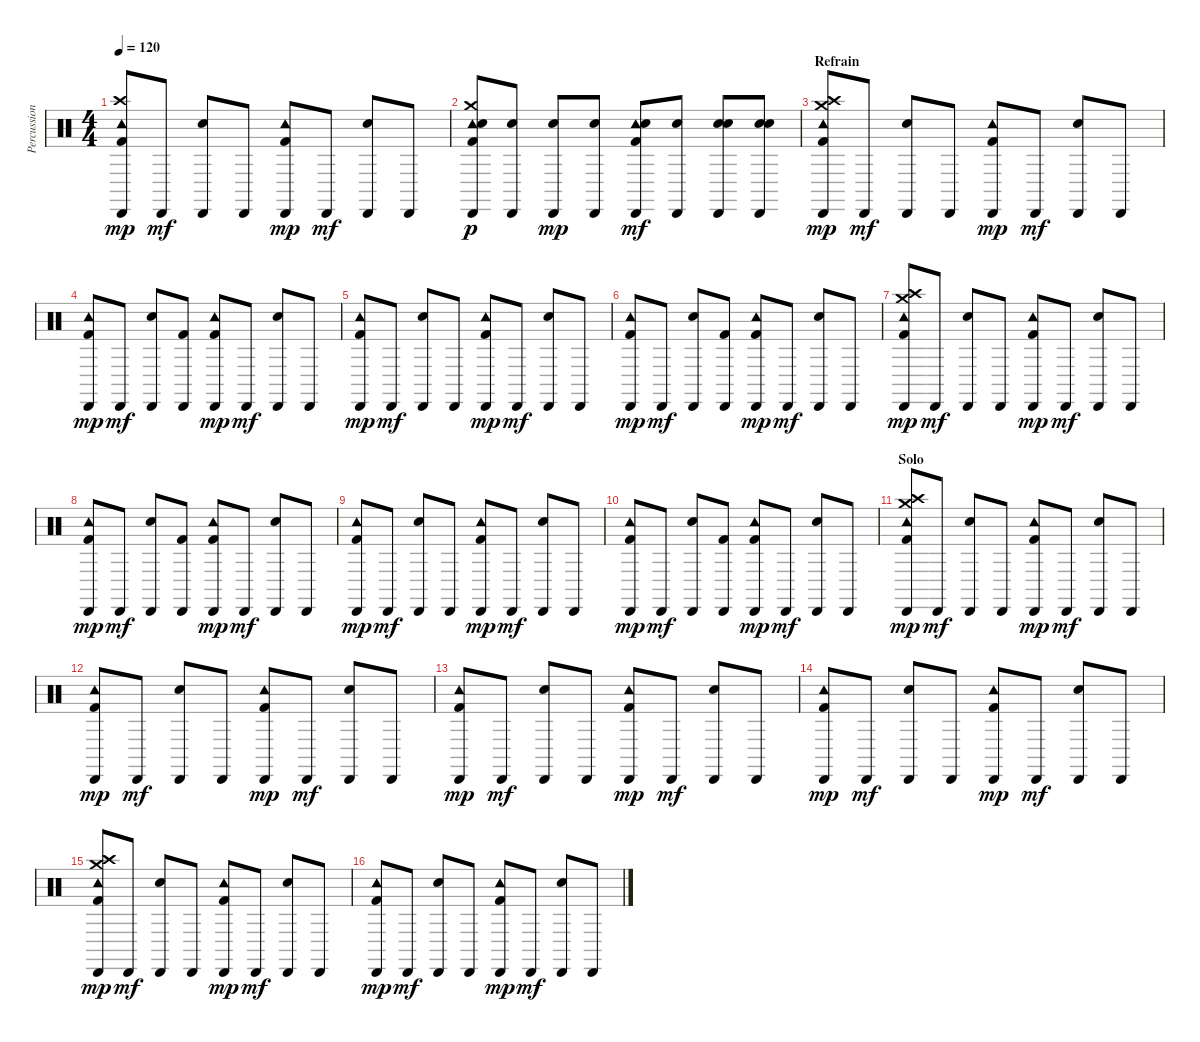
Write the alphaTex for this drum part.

\track ("Percussions" "Percussion") {instrument percussion}
\staff {score}
\articulation defaults
\ts (4 4)
\tempo 120
\clef neutral
\ks c
("Tambourine (hit)" "Cabasa (hit)" "Crash high (hit)" "Kick (hit) 2").8{dy mp} "Cabasa (hit)".8{dy mf} ("Cabasa (hit)" "Electric Snare (hit)").8 "Cabasa (hit)".8 ("Tambourine (hit)" "Cabasa (hit)" "Kick (hit) 2").8{dy mp} "Cabasa (hit)".8{dy mf} ("Cabasa (hit)" "Electric Snare (hit)").8 "Cabasa (hit)".8 |
("Tambourine (hit)" "Cabasa (hit)" "Crash medium (hit)" "Electric Snare (hit)" "Kick (hit) 2").8{dy p} ("Cabasa (hit)" "Electric Snare (hit)").8 ("Cabasa (hit)" "Electric Snare (hit)").8{dy mp} ("Cabasa (hit)" "Electric Snare (hit)").8 ("Tambourine (hit)" "Cabasa (hit)" "Electric Snare (hit)" "Kick (hit) 2").8{dy mf} ("Cabasa (hit)" "Electric Snare (hit)").8 ("Cabasa (hit)" "Electric Snare (hit)" "Electric Snare (hit)").8 ("Cabasa (hit)" "Electric Snare (hit)" "Electric Snare (hit)").8 |
\section ("" "Refrain")
("Tambourine (hit)" "Cabasa (hit)" "Crash medium (hit)" "Crash high (hit)" "Kick (hit) 2").8{dy mp} "Cabasa (hit)".8{dy mf} ("Cabasa (hit)" "Electric Snare (hit)").8 "Cabasa (hit)".8 ("Tambourine (hit)" "Cabasa (hit)" "Kick (hit) 2").8{dy mp} "Cabasa (hit)".8{dy mf} ("Cabasa (hit)" "Electric Snare (hit)").8 "Cabasa (hit)".8 |
("Tambourine (hit)" "Cabasa (hit)" "Kick (hit) 2").8{dy mp} "Cabasa (hit)".8{dy mf} ("Cabasa (hit)" "Electric Snare (hit)").8 ("Cabasa (hit)" "Kick (hit) 2").8 ("Tambourine (hit)" "Cabasa (hit)" "Kick (hit) 2").8{dy mp} "Cabasa (hit)".8{dy mf} ("Cabasa (hit)" "Electric Snare (hit)").8 "Cabasa (hit)".8 |
("Tambourine (hit)" "Cabasa (hit)" "Kick (hit) 2").8{dy mp} "Cabasa (hit)".8{dy mf} ("Cabasa (hit)" "Electric Snare (hit)").8 "Cabasa (hit)".8 ("Tambourine (hit)" "Cabasa (hit)" "Kick (hit) 2").8{dy mp} "Cabasa (hit)".8{dy mf} ("Cabasa (hit)" "Electric Snare (hit)").8 "Cabasa (hit)".8 |
("Tambourine (hit)" "Cabasa (hit)" "Kick (hit) 2").8{dy mp} "Cabasa (hit)".8{dy mf} ("Cabasa (hit)" "Electric Snare (hit)").8 ("Cabasa (hit)" "Kick (hit) 2").8 ("Tambourine (hit)" "Cabasa (hit)" "Kick (hit) 2").8{dy mp} "Cabasa (hit)".8{dy mf} ("Cabasa (hit)" "Electric Snare (hit)").8 "Cabasa (hit)".8 |
("Tambourine (hit)" "Cabasa (hit)" "Crash medium (hit)" "Crash high (hit)" "Kick (hit) 2").8{dy mp} "Cabasa (hit)".8{dy mf} ("Cabasa (hit)" "Electric Snare (hit)").8 "Cabasa (hit)".8 ("Tambourine (hit)" "Cabasa (hit)" "Kick (hit) 2").8{dy mp} "Cabasa (hit)".8{dy mf} ("Cabasa (hit)" "Electric Snare (hit)").8 "Cabasa (hit)".8 |
("Tambourine (hit)" "Cabasa (hit)" "Kick (hit) 2").8{dy mp} "Cabasa (hit)".8{dy mf} ("Cabasa (hit)" "Electric Snare (hit)").8 ("Cabasa (hit)" "Kick (hit) 2").8 ("Tambourine (hit)" "Cabasa (hit)" "Kick (hit) 2").8{dy mp} "Cabasa (hit)".8{dy mf} ("Cabasa (hit)" "Electric Snare (hit)").8 "Cabasa (hit)".8 |
("Tambourine (hit)" "Cabasa (hit)" "Kick (hit) 2").8{dy mp} "Cabasa (hit)".8{dy mf} ("Cabasa (hit)" "Electric Snare (hit)").8 "Cabasa (hit)".8 ("Tambourine (hit)" "Cabasa (hit)" "Kick (hit) 2").8{dy mp} "Cabasa (hit)".8{dy mf} ("Cabasa (hit)" "Electric Snare (hit)").8 "Cabasa (hit)".8 |
("Tambourine (hit)" "Cabasa (hit)" "Kick (hit) 2").8{dy mp} "Cabasa (hit)".8{dy mf} ("Cabasa (hit)" "Electric Snare (hit)").8 ("Cabasa (hit)" "Kick (hit) 2").8 ("Tambourine (hit)" "Cabasa (hit)" "Kick (hit) 2").8{dy mp} "Cabasa (hit)".8{dy mf} ("Cabasa (hit)" "Electric Snare (hit)").8 "Cabasa (hit)".8 |
\section ("" "Solo")
("Tambourine (hit)" "Cabasa (hit)" "Crash medium (hit)" "Crash high (hit)" "Kick (hit) 2").8{dy mp} "Cabasa (hit)".8{dy mf} ("Cabasa (hit)" "Electric Snare (hit)").8 "Cabasa (hit)".8 ("Tambourine (hit)" "Cabasa (hit)" "Kick (hit) 2").8{dy mp} "Cabasa (hit)".8{dy mf} ("Cabasa (hit)" "Electric Snare (hit)").8 "Cabasa (hit)".8 |
("Tambourine (hit)" "Cabasa (hit)" "Kick (hit) 2").8{dy mp} "Cabasa (hit)".8{dy mf} ("Cabasa (hit)" "Electric Snare (hit)").8 "Cabasa (hit)".8 ("Tambourine (hit)" "Cabasa (hit)" "Kick (hit) 2").8{dy mp} "Cabasa (hit)".8{dy mf} ("Cabasa (hit)" "Electric Snare (hit)").8 "Cabasa (hit)".8 |
("Tambourine (hit)" "Cabasa (hit)" "Kick (hit) 2").8{dy mp} "Cabasa (hit)".8{dy mf} ("Cabasa (hit)" "Electric Snare (hit)").8 "Cabasa (hit)".8 ("Tambourine (hit)" "Cabasa (hit)" "Kick (hit) 2").8{dy mp} "Cabasa (hit)".8{dy mf} ("Cabasa (hit)" "Electric Snare (hit)").8 "Cabasa (hit)".8 |
("Tambourine (hit)" "Cabasa (hit)" "Kick (hit) 2").8{dy mp} "Cabasa (hit)".8{dy mf} ("Cabasa (hit)" "Electric Snare (hit)").8 "Cabasa (hit)".8 ("Tambourine (hit)" "Cabasa (hit)" "Kick (hit) 2").8{dy mp} "Cabasa (hit)".8{dy mf} ("Cabasa (hit)" "Electric Snare (hit)").8 "Cabasa (hit)".8 |
("Tambourine (hit)" "Cabasa (hit)" "Crash medium (hit)" "Crash high (hit)" "Kick (hit) 2").8{dy mp} "Cabasa (hit)".8{dy mf} ("Cabasa (hit)" "Electric Snare (hit)").8 "Cabasa (hit)".8 ("Tambourine (hit)" "Cabasa (hit)" "Kick (hit) 2").8{dy mp} "Cabasa (hit)".8{dy mf} ("Cabasa (hit)" "Electric Snare (hit)").8 "Cabasa (hit)".8 |
("Tambourine (hit)" "Cabasa (hit)" "Kick (hit) 2").8{dy mp} "Cabasa (hit)".8{dy mf} ("Cabasa (hit)" "Electric Snare (hit)").8 "Cabasa (hit)".8 ("Tambourine (hit)" "Cabasa (hit)" "Kick (hit) 2").8{dy mp} "Cabasa (hit)".8{dy mf} ("Cabasa (hit)" "Electric Snare (hit)").8 "Cabasa (hit)".8
